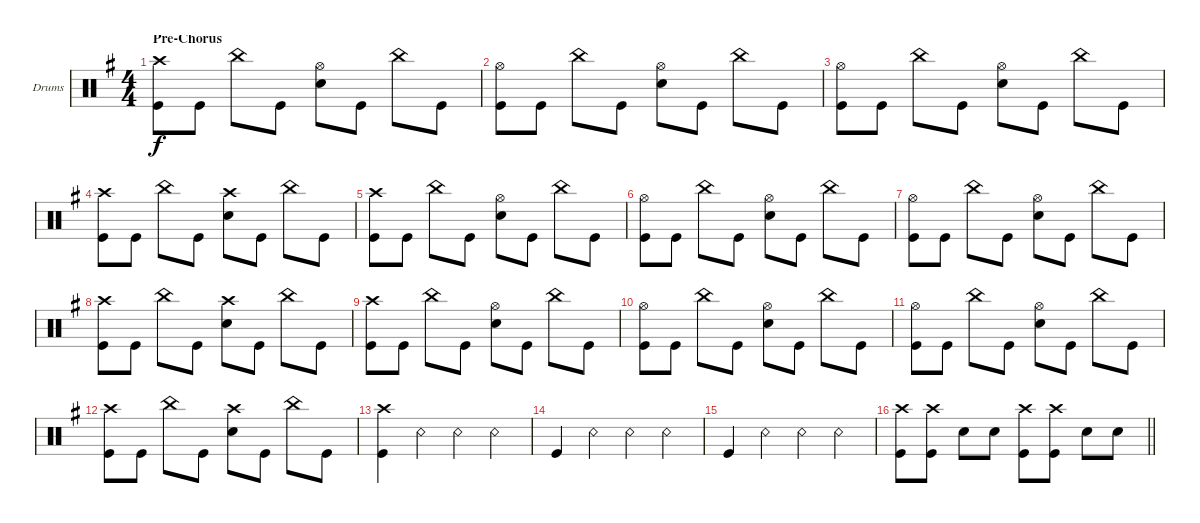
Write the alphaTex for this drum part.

\defaultSystemsLayout 4
\bracketExtendMode groupsimilarinstruments
\firstSystemTrackNameOrientation horizontal
\otherSystemsTrackNameOrientation horizontal
\track ("Drums" "Drums") {instrument percussion}
\staff {score}
\articulation defaults
\ts (4 4)
\section ("" "Pre-Chorus")
\tempo (188 hide)
\clef neutral
\ks g
("Kick (hit)" "Crash high (hit)").8{dy f} "Kick (hit)".8 "China (hit)".8 "Kick (hit)".8 ("Hi-Hat (open)" "Snare (hit) 2").8 "Kick (hit)".8 "China (hit)".8 "Kick (hit)".8 |
("Kick (hit)" "Hi-Hat (open)").8 "Kick (hit)".8 "China (hit)".8 "Kick (hit)".8 ("Hi-Hat (open)" "Snare (hit) 2").8 "Kick (hit)".8 "China (hit)".8 "Kick (hit)".8 |
("Kick (hit)" "Hi-Hat (open)").8 "Kick (hit)".8 "China (hit)".8 "Kick (hit)".8 ("Hi-Hat (open)" "Snare (hit) 2").8 "Kick (hit)".8 "China (hit)".8 "Kick (hit)".8 |
("Kick (hit)" "Crash high (hit)").8 "Kick (hit)".8 "China (hit)".8 "Kick (hit)".8 ("Snare (hit) 2" "Crash high (hit)").8 "Kick (hit)".8 "China (hit)".8 "Kick (hit)".8 |
("Kick (hit)" "Crash high (hit)").8 "Kick (hit)".8 "China (hit)".8 "Kick (hit)".8 ("Hi-Hat (open)" "Snare (hit) 2").8 "Kick (hit)".8 "China (hit)".8 "Kick (hit)".8 |
("Kick (hit)" "Hi-Hat (open)").8 "Kick (hit)".8 "China (hit)".8 "Kick (hit)".8 ("Hi-Hat (open)" "Snare (hit) 2").8 "Kick (hit)".8 "China (hit)".8 "Kick (hit)".8 |
("Kick (hit)" "Hi-Hat (open)").8 "Kick (hit)".8 "China (hit)".8 "Kick (hit)".8 ("Hi-Hat (open)" "Snare (hit) 2").8 "Kick (hit)".8 "China (hit)".8 "Kick (hit)".8 |
("Kick (hit)" "Crash high (hit)").8 "Kick (hit)".8 "China (hit)".8 "Kick (hit)".8 ("Snare (hit) 2" "Crash high (hit)").8 "Kick (hit)".8 "China (hit)".8 "Kick (hit)".8 |
("Kick (hit)" "Crash high (hit)").8 "Kick (hit)".8 "China (hit)".8 "Kick (hit)".8 ("Hi-Hat (open)" "Snare (hit) 2").8 "Kick (hit)".8 "China (hit)".8 "Kick (hit)".8 |
("Kick (hit)" "Hi-Hat (open)").8 "Kick (hit)".8 "China (hit)".8 "Kick (hit)".8 ("Hi-Hat (open)" "Snare (hit) 2").8 "Kick (hit)".8 "China (hit)".8 "Kick (hit)".8 |
("Kick (hit)" "Hi-Hat (open)").8 "Kick (hit)".8 "China (hit)".8 "Kick (hit)".8 ("Hi-Hat (open)" "Snare (hit) 2").8 "Kick (hit)".8 "China (hit)".8 "Kick (hit)".8 |
("Kick (hit)" "Crash high (hit)").8 "Kick (hit)".8 "China (hit)".8 "Kick (hit)".8 ("Snare (hit) 2" "Crash high (hit)").8 "Kick (hit)".8 "China (hit)".8 "Kick (hit)".8 |
("Kick (hit)" "Crash high (hit)").4 "Snare (rim shot)".4 "Snare (rim shot)".4 "Snare (rim shot)".4 |
"Kick (hit)".4 "Snare (rim shot)".4 "Snare (rim shot)".4 "Snare (rim shot)".4 |
"Kick (hit)".4 "Snare (rim shot)".4 "Snare (rim shot)".4 "Snare (rim shot)".4 |
\barLineRight lightlight
("Kick (hit)" "Crash high (hit)").8 ("Kick (hit)" "Crash high (hit)").8 "Snare (hit) 2".8 "Snare (hit) 2".8 ("Kick (hit)" "Crash high (hit)").8 ("Kick (hit)" "Crash high (hit)").8 "Snare (hit) 2".8 "Snare (hit) 2".8
